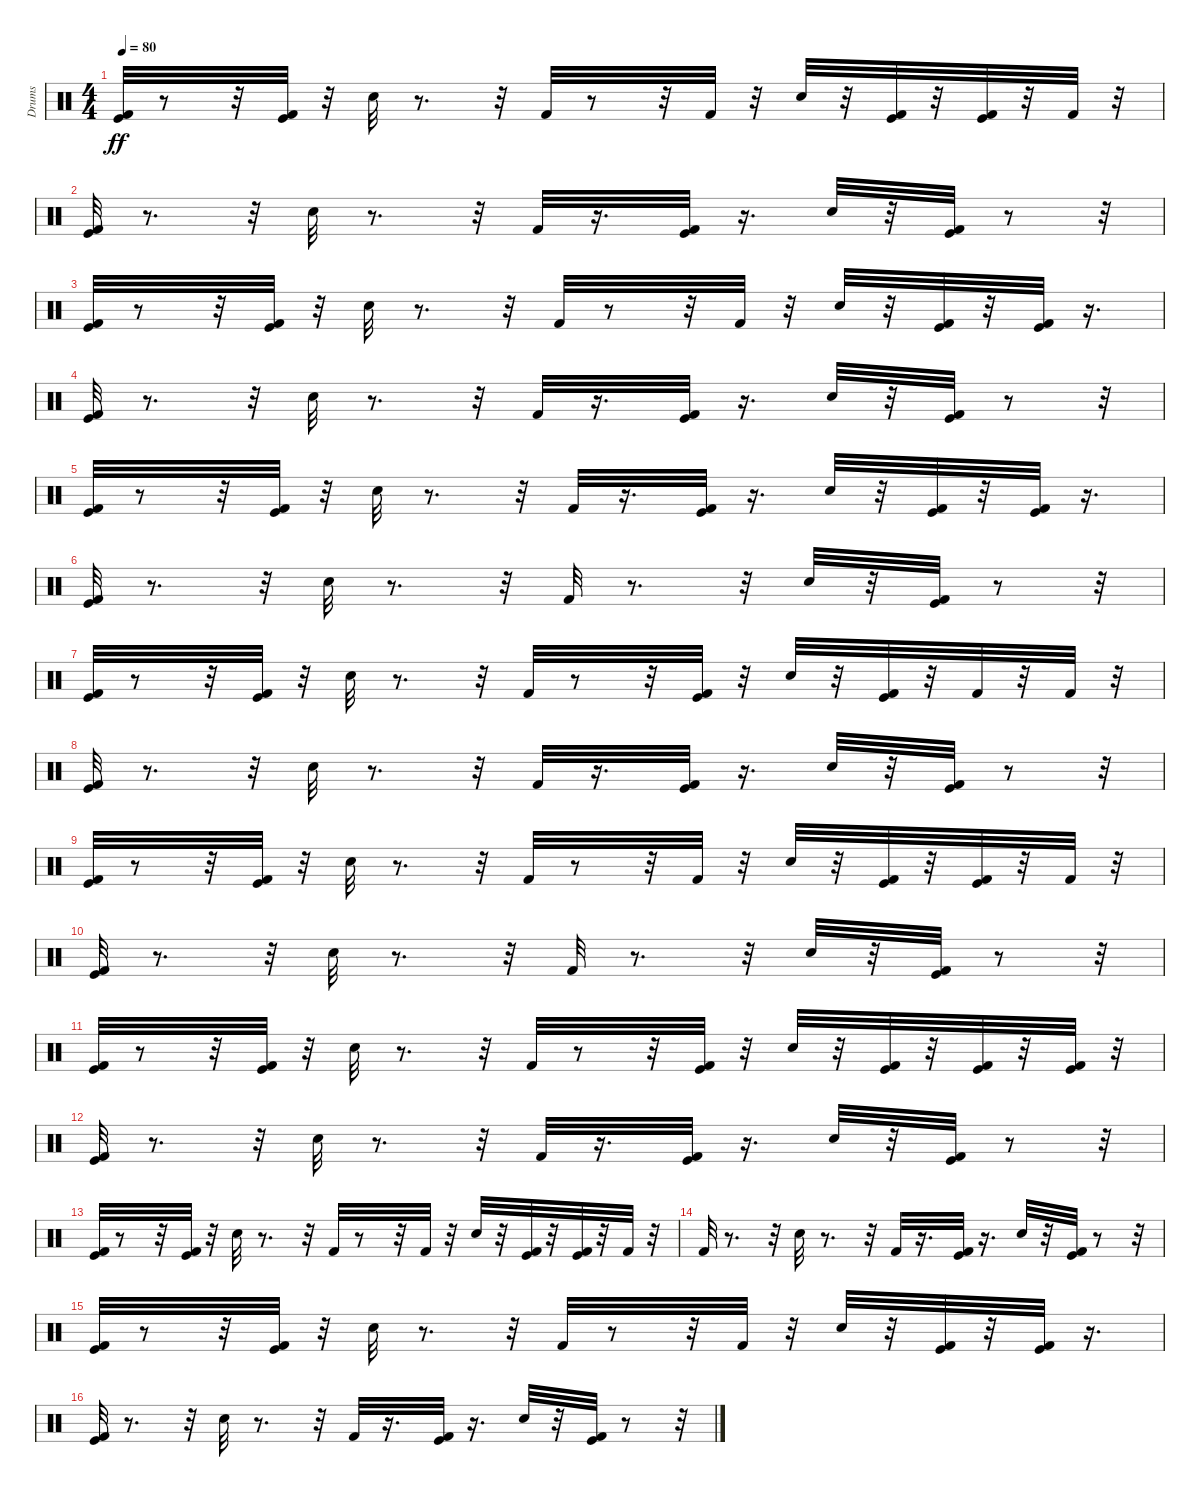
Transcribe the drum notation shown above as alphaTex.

\track ("Drums" "Drums") {instrument percussion}
\staff {score}
\articulation defaults
\ts (4 4)
\tempo 80
\clef neutral
\ks c
("Kick (hit)" "Kick (hit) 2").32{dy ff} r.8 r.32 ("Kick (hit)" "Kick (hit) 2").32 r.32 "Hand Clap (hit)".32 r.8{d} r.32 "Kick (hit) 2".32 r.8 r.32 "Kick (hit) 2".32 r.32 "Hand Clap (hit)".32 r.32 ("Kick (hit)" "Kick (hit) 2").32 r.32 ("Kick (hit)" "Kick (hit) 2").32 r.32 "Kick (hit) 2".32 r.32 |
("Kick (hit)" "Kick (hit) 2").32 r.8{d} r.32 "Hand Clap (hit)".32 r.8{d} r.32 "Kick (hit) 2".32 r.16{d} ("Kick (hit)" "Kick (hit) 2").32 r.16{d} "Hand Clap (hit)".32 r.32 ("Kick (hit)" "Kick (hit) 2").32 r.8 r.32 |
("Kick (hit)" "Kick (hit) 2").32 r.8 r.32 ("Kick (hit)" "Kick (hit) 2").32 r.32 "Hand Clap (hit)".32 r.8{d} r.32 "Kick (hit) 2".32 r.8 r.32 "Kick (hit) 2".32 r.32 "Hand Clap (hit)".32 r.32 ("Kick (hit)" "Kick (hit) 2").32 r.32 ("Kick (hit)" "Kick (hit) 2").32 r.16{d} |
("Kick (hit)" "Kick (hit) 2").32 r.8{d} r.32 "Hand Clap (hit)".32 r.8{d} r.32 "Kick (hit) 2".32 r.16{d} ("Kick (hit)" "Kick (hit) 2").32 r.16{d} "Hand Clap (hit)".32 r.32 ("Kick (hit)" "Kick (hit) 2").32 r.8 r.32 |
("Kick (hit)" "Kick (hit) 2").32 r.8 r.32 ("Kick (hit)" "Kick (hit) 2").32 r.32 "Hand Clap (hit)".32 r.8{d} r.32 "Kick (hit) 2".32 r.16{d} ("Kick (hit)" "Kick (hit) 2").32 r.16{d} "Hand Clap (hit)".32 r.32 ("Kick (hit)" "Kick (hit) 2").32 r.32 ("Kick (hit)" "Kick (hit) 2").32 r.16{d} |
("Kick (hit)" "Kick (hit) 2").32 r.8{d} r.32 "Hand Clap (hit)".32 r.8{d} r.32 "Kick (hit) 2".32 r.8{d} r.32 "Hand Clap (hit)".32 r.32 ("Kick (hit)" "Kick (hit) 2").32 r.8 r.32 |
("Kick (hit)" "Kick (hit) 2").32 r.8 r.32 ("Kick (hit)" "Kick (hit) 2").32 r.32 "Hand Clap (hit)".32 r.8{d} r.32 "Kick (hit) 2".32 r.8 r.32 ("Kick (hit)" "Kick (hit) 2").32 r.32 "Hand Clap (hit)".32 r.32 ("Kick (hit)" "Kick (hit) 2").32 r.32 "Kick (hit) 2".32 r.32 "Kick (hit) 2".32 r.32 |
("Kick (hit)" "Kick (hit) 2").32 r.8{d} r.32 "Hand Clap (hit)".32 r.8{d} r.32 "Kick (hit) 2".32 r.16{d} ("Kick (hit)" "Kick (hit) 2").32 r.16{d} "Hand Clap (hit)".32 r.32 ("Kick (hit)" "Kick (hit) 2").32 r.8 r.32 |
("Kick (hit)" "Kick (hit) 2").32 r.8 r.32 ("Kick (hit)" "Kick (hit) 2").32 r.32 "Hand Clap (hit)".32 r.8{d} r.32 "Kick (hit) 2".32 r.8 r.32 "Kick (hit) 2".32 r.32 "Hand Clap (hit)".32 r.32 ("Kick (hit)" "Kick (hit) 2").32 r.32 ("Kick (hit)" "Kick (hit) 2").32 r.32 "Kick (hit) 2".32 r.32 |
("Kick (hit)" "Kick (hit) 2").32 r.8{d} r.32 "Hand Clap (hit)".32 r.8{d} r.32 "Kick (hit) 2".32 r.8{d} r.32 "Hand Clap (hit)".32 r.32 ("Kick (hit)" "Kick (hit) 2").32 r.8 r.32 |
("Kick (hit)" "Kick (hit) 2").32 r.8 r.32 ("Kick (hit)" "Kick (hit) 2").32 r.32 "Hand Clap (hit)".32 r.8{d} r.32 "Kick (hit) 2".32 r.8 r.32 ("Kick (hit)" "Kick (hit) 2").32 r.32 "Hand Clap (hit)".32 r.32 ("Kick (hit)" "Kick (hit) 2").32 r.32 ("Kick (hit)" "Kick (hit) 2").32 r.32 ("Kick (hit)" "Kick (hit) 2").32 r.32 |
("Kick (hit)" "Kick (hit) 2").32 r.8{d} r.32 "Hand Clap (hit)".32 r.8{d} r.32 "Kick (hit) 2".32 r.16{d} ("Kick (hit)" "Kick (hit) 2").32 r.16{d} "Hand Clap (hit)".32 r.32 ("Kick (hit)" "Kick (hit) 2").32 r.8 r.32 |
("Kick (hit)" "Kick (hit) 2").32 r.8 r.32 ("Kick (hit)" "Kick (hit) 2").32 r.32 "Hand Clap (hit)".32 r.8{d} r.32 "Kick (hit) 2".32 r.8 r.32 "Kick (hit) 2".32 r.32 "Hand Clap (hit)".32 r.32 ("Kick (hit)" "Kick (hit) 2").32 r.32 ("Kick (hit)" "Kick (hit) 2").32 r.32 "Kick (hit) 2".32 r.32 |
"Kick (hit) 2".32 r.8{d} r.32 "Hand Clap (hit)".32 r.8{d} r.32 "Kick (hit) 2".32 r.16{d} ("Kick (hit)" "Kick (hit) 2").32 r.16{d} "Hand Clap (hit)".32 r.32 ("Kick (hit)" "Kick (hit) 2").32 r.8 r.32 |
("Kick (hit)" "Kick (hit) 2").32 r.8 r.32 ("Kick (hit)" "Kick (hit) 2").32 r.32 "Hand Clap (hit)".32 r.8{d} r.32 "Kick (hit) 2".32 r.8 r.32 "Kick (hit) 2".32 r.32 "Hand Clap (hit)".32 r.32 ("Kick (hit)" "Kick (hit) 2").32 r.32 ("Kick (hit)" "Kick (hit) 2").32 r.16{d} |
("Kick (hit)" "Kick (hit) 2").32 r.8{d} r.32 "Hand Clap (hit)".32 r.8{d} r.32 "Kick (hit) 2".32 r.16{d} ("Kick (hit)" "Kick (hit) 2").32 r.16{d} "Hand Clap (hit)".32 r.32 ("Kick (hit)" "Kick (hit) 2").32 r.8 r.32
